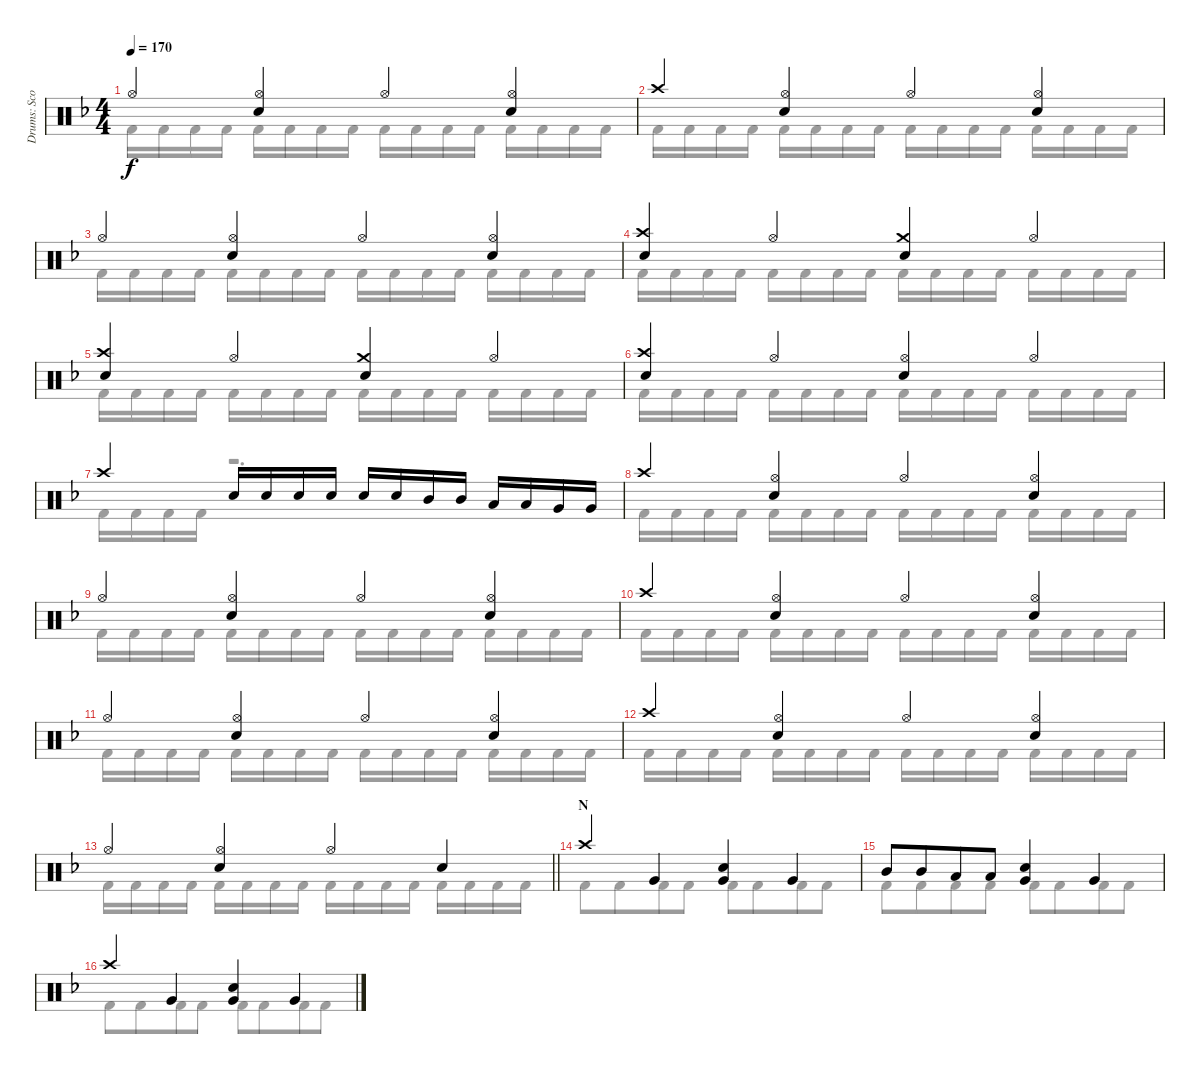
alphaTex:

\track ("Drums: Scott" "Drums: Sco") {instrument percussion}
\staff {score}
\articulation defaults
\voice
\ts (4 4)
\tempo 170
\clef neutral
\ks f "Hi-Hat (open)".4{dy f}
("Hi-Hat (open)" "Snare (hit) 2").4 "Hi-Hat (open)".4 ("Hi-Hat (open)" "Snare (hit) 2").4 |
"Crash high (hit)".4 ("Hi-Hat (open)" "Snare (hit) 2").4 "Hi-Hat (open)".4 ("Hi-Hat (open)" "Snare (hit) 2").4 |
"Hi-Hat (open)".4 ("Hi-Hat (open)" "Snare (hit) 2").4 "Hi-Hat (open)".4 ("Hi-Hat (open)" "Snare (hit) 2").4 |
("Crash high (hit)" "Snare (hit) 2").4 "Hi-Hat (open)".4 ("Crash medium (hit)" "Snare (hit) 2").4 "Hi-Hat (open)".4 |
("Crash high (hit)" "Snare (hit) 2").4 "Hi-Hat (open)".4 ("Crash medium (hit)" "Snare (hit) 2").4 "Hi-Hat (open)".4 |
("Crash high (hit)" "Snare (hit) 2").4 "Hi-Hat (open)".4 ("Hi-Hat (open)" "Snare (hit) 2").4 "Hi-Hat (open)".4 |
"Crash high (hit)".4 "Snare (hit) 2".16 "Snare (hit) 2".16 "Snare (hit) 2".16 "Snare (hit) 2".16 "Snare (hit) 2".16 "Snare (hit) 2".16 "Mid Tom (hit)".16 "Mid Tom (hit)".16 "Low Tom (hit)".16 "Low Tom (hit)".16 "Very Low Tom (hit)".16 "Very Low Tom (hit)".16 |
"Crash high (hit)".4 ("Hi-Hat (open)" "Snare (hit) 2").4 "Hi-Hat (open)".4 ("Hi-Hat (open)" "Snare (hit) 2").4 |
"Hi-Hat (open)".4 ("Hi-Hat (open)" "Snare (hit) 2").4 "Hi-Hat (open)".4 ("Hi-Hat (open)" "Snare (hit) 2").4 |
"Crash high (hit)".4 ("Hi-Hat (open)" "Snare (hit) 2").4 "Hi-Hat (open)".4 ("Hi-Hat (open)" "Snare (hit) 2").4 |
"Hi-Hat (open)".4 ("Hi-Hat (open)" "Snare (hit) 2").4 "Hi-Hat (open)".4 ("Hi-Hat (open)" "Snare (hit) 2").4 |
"Crash high (hit)".4 ("Hi-Hat (open)" "Snare (hit) 2").4 "Hi-Hat (open)".4 ("Hi-Hat (open)" "Snare (hit) 2").4 |
\barLineRight lightlight "Hi-Hat (open)".4
("Hi-Hat (open)" "Snare (hit) 2").4 "Hi-Hat (open)".4 "Snare (hit) 2".4 |
\section ("" "N")
"Crash high (hit)".4 "Very Low Tom (hit)".4 ("Snare (hit) 2" "Very Low Tom (hit)").4 "Very Low Tom (hit)".4 |
"Mid Tom (hit)".8 "Mid Tom (hit)".8{beam merge} "Low Tom (hit)".8 "Low Tom (hit)".8 ("Snare (hit) 2" "Very Low Tom (hit)").4 "Very Low Tom (hit)".4 |
"Crash high (hit)".4 "Very Low Tom (hit)".4 ("Snare (hit) 2" "Very Low Tom (hit)").4 "Very Low Tom (hit)".4
\voice
\clef neutral
\ottava regular
\simile none
\ks f "Kick (hit) 2".16{dy f} "Kick (hit) 2".16{beam merge} "Kick (hit) 2".16 "Kick (hit) 2".16 "Kick (hit) 2".16 "Kick (hit) 2".16{beam merge} "Kick (hit) 2".16 "Kick (hit) 2".16 "Kick (hit) 2".16 "Kick (hit) 2".16{beam merge} "Kick (hit) 2".16 "Kick (hit) 2".16 "Kick (hit) 2".16 "Kick (hit) 2".16{beam merge} "Kick (hit) 2".16 "Kick (hit) 2".16
|
"Kick (hit) 2".16 "Kick (hit) 2".16{beam merge} "Kick (hit) 2".16 "Kick (hit) 2".16 "Kick (hit) 2".16 "Kick (hit) 2".16{beam merge} "Kick (hit) 2".16 "Kick (hit) 2".16 "Kick (hit) 2".16 "Kick (hit) 2".16{beam merge} "Kick (hit) 2".16 "Kick (hit) 2".16 "Kick (hit) 2".16 "Kick (hit) 2".16{beam merge} "Kick (hit) 2".16 "Kick (hit) 2".16 |
"Kick (hit) 2".16 "Kick (hit) 2".16{beam merge} "Kick (hit) 2".16 "Kick (hit) 2".16 "Kick (hit) 2".16 "Kick (hit) 2".16{beam merge} "Kick (hit) 2".16 "Kick (hit) 2".16 "Kick (hit) 2".16 "Kick (hit) 2".16{beam merge} "Kick (hit) 2".16 "Kick (hit) 2".16 "Kick (hit) 2".16 "Kick (hit) 2".16{beam merge} "Kick (hit) 2".16 "Kick (hit) 2".16 |
"Kick (hit) 2".16 "Kick (hit) 2".16{beam merge} "Kick (hit) 2".16 "Kick (hit) 2".16 "Kick (hit) 2".16 "Kick (hit) 2".16{beam merge} "Kick (hit) 2".16 "Kick (hit) 2".16 "Kick (hit) 2".16 "Kick (hit) 2".16{beam merge} "Kick (hit) 2".16 "Kick (hit) 2".16 "Kick (hit) 2".16 "Kick (hit) 2".16{beam merge} "Kick (hit) 2".16 "Kick (hit) 2".16 |
"Kick (hit) 2".16 "Kick (hit) 2".16{beam merge} "Kick (hit) 2".16 "Kick (hit) 2".16 "Kick (hit) 2".16 "Kick (hit) 2".16{beam merge} "Kick (hit) 2".16 "Kick (hit) 2".16 "Kick (hit) 2".16 "Kick (hit) 2".16{beam merge} "Kick (hit) 2".16 "Kick (hit) 2".16 "Kick (hit) 2".16 "Kick (hit) 2".16{beam merge} "Kick (hit) 2".16 "Kick (hit) 2".16 |
"Kick (hit) 2".16 "Kick (hit) 2".16{beam merge} "Kick (hit) 2".16 "Kick (hit) 2".16 "Kick (hit) 2".16 "Kick (hit) 2".16{beam merge} "Kick (hit) 2".16 "Kick (hit) 2".16 "Kick (hit) 2".16 "Kick (hit) 2".16{beam merge} "Kick (hit) 2".16 "Kick (hit) 2".16 "Kick (hit) 2".16 "Kick (hit) 2".16{beam merge} "Kick (hit) 2".16 "Kick (hit) 2".16 |
"Kick (hit) 2".16 "Kick (hit) 2".16{beam merge} "Kick (hit) 2".16 "Kick (hit) 2".16 r.2{d} |
"Kick (hit) 2".16 "Kick (hit) 2".16{beam merge} "Kick (hit) 2".16 "Kick (hit) 2".16 "Kick (hit) 2".16 "Kick (hit) 2".16{beam merge} "Kick (hit) 2".16 "Kick (hit) 2".16 "Kick (hit) 2".16 "Kick (hit) 2".16{beam merge} "Kick (hit) 2".16 "Kick (hit) 2".16 "Kick (hit) 2".16 "Kick (hit) 2".16{beam merge} "Kick (hit) 2".16 "Kick (hit) 2".16 |
"Kick (hit) 2".16 "Kick (hit) 2".16{beam merge} "Kick (hit) 2".16 "Kick (hit) 2".16 "Kick (hit) 2".16 "Kick (hit) 2".16{beam merge} "Kick (hit) 2".16 "Kick (hit) 2".16 "Kick (hit) 2".16 "Kick (hit) 2".16{beam merge} "Kick (hit) 2".16 "Kick (hit) 2".16 "Kick (hit) 2".16 "Kick (hit) 2".16{beam merge} "Kick (hit) 2".16 "Kick (hit) 2".16 |
"Kick (hit) 2".16 "Kick (hit) 2".16{beam merge} "Kick (hit) 2".16 "Kick (hit) 2".16 "Kick (hit) 2".16 "Kick (hit) 2".16{beam merge} "Kick (hit) 2".16 "Kick (hit) 2".16 "Kick (hit) 2".16 "Kick (hit) 2".16{beam merge} "Kick (hit) 2".16 "Kick (hit) 2".16 "Kick (hit) 2".16 "Kick (hit) 2".16{beam merge} "Kick (hit) 2".16 "Kick (hit) 2".16 |
"Kick (hit) 2".16 "Kick (hit) 2".16{beam merge} "Kick (hit) 2".16 "Kick (hit) 2".16 "Kick (hit) 2".16 "Kick (hit) 2".16{beam merge} "Kick (hit) 2".16 "Kick (hit) 2".16 "Kick (hit) 2".16 "Kick (hit) 2".16{beam merge} "Kick (hit) 2".16 "Kick (hit) 2".16 "Kick (hit) 2".16 "Kick (hit) 2".16{beam merge} "Kick (hit) 2".16 "Kick (hit) 2".16 |
"Kick (hit) 2".16 "Kick (hit) 2".16{beam merge} "Kick (hit) 2".16 "Kick (hit) 2".16 "Kick (hit) 2".16 "Kick (hit) 2".16{beam merge} "Kick (hit) 2".16 "Kick (hit) 2".16 "Kick (hit) 2".16 "Kick (hit) 2".16{beam merge} "Kick (hit) 2".16 "Kick (hit) 2".16 "Kick (hit) 2".16 "Kick (hit) 2".16{beam merge} "Kick (hit) 2".16 "Kick (hit) 2".16 |
\barLineRight lightlight "Kick (hit) 2".16 "Kick (hit) 2".16{beam merge} "Kick (hit) 2".16 "Kick (hit) 2".16 "Kick (hit) 2".16 "Kick (hit) 2".16{beam merge} "Kick (hit) 2".16 "Kick (hit) 2".16 "Kick (hit) 2".16 "Kick (hit) 2".16{beam merge} "Kick (hit) 2".16 "Kick (hit) 2".16 "Kick (hit) 2".16 "Kick (hit) 2".16{beam merge} "Kick (hit) 2".16 "Kick (hit) 2".16
|
"Kick (hit) 2".8 "Kick (hit) 2".8{beam merge} "Kick (hit) 2".8 "Kick (hit) 2".8 "Kick (hit) 2".8 "Kick (hit) 2".8{beam merge} "Kick (hit) 2".8 "Kick (hit) 2".8 |
"Kick (hit) 2".8 "Kick (hit) 2".8{beam merge} "Kick (hit) 2".8 "Kick (hit) 2".8 "Kick (hit) 2".8 "Kick (hit) 2".8{beam merge} "Kick (hit) 2".8 "Kick (hit) 2".8 |
"Kick (hit) 2".8 "Kick (hit) 2".8{beam merge} "Kick (hit) 2".8 "Kick (hit) 2".8 "Kick (hit) 2".8 "Kick (hit) 2".8{beam merge} "Kick (hit) 2".8 "Kick (hit) 2".8
